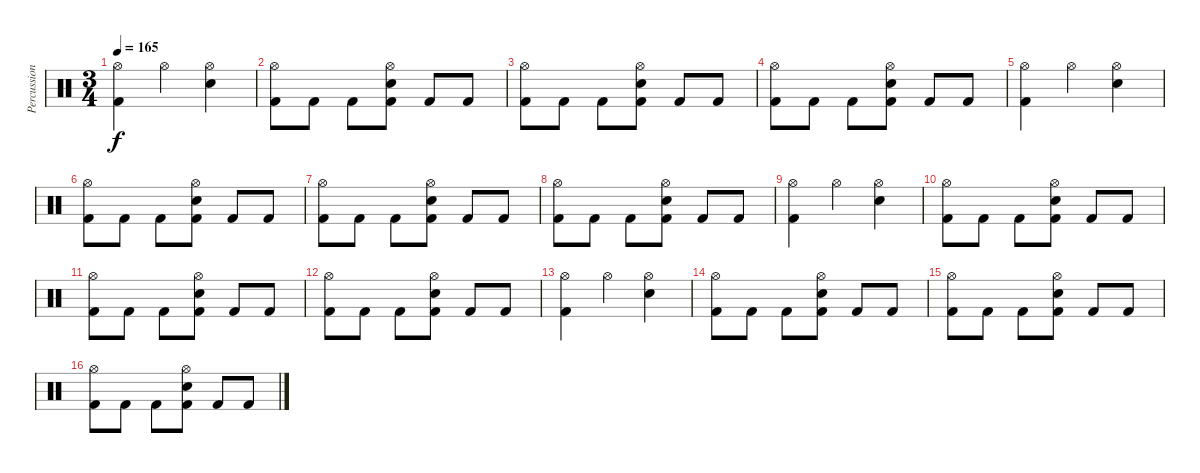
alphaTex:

\track ("Percussion" "Percussion") {instrument percussion}
\staff {score}
\articulation defaults
\ts (3 4)
\tempo 165
\clef neutral
\ks c
("Hi-Hat (open)" "Kick (hit) 2").4{dy f} "Hi-Hat (open)".4 ("Hi-Hat (open)" "Snare (hit) 2").4 |
("Hi-Hat (open)" "Kick (hit) 2").8 "Kick (hit) 2".8 "Kick (hit) 2".8 ("Hi-Hat (open)" "Snare (hit) 2" "Kick (hit) 2").8 "Kick (hit) 2".8 "Kick (hit) 2".8 |
("Hi-Hat (open)" "Kick (hit) 2").8 "Kick (hit) 2".8 "Kick (hit) 2".8 ("Hi-Hat (open)" "Snare (hit) 2" "Kick (hit) 2").8 "Kick (hit) 2".8 "Kick (hit) 2".8 |
("Hi-Hat (open)" "Kick (hit) 2").8 "Kick (hit) 2".8 "Kick (hit) 2".8 ("Hi-Hat (open)" "Snare (hit) 2" "Kick (hit) 2").8 "Kick (hit) 2".8 "Kick (hit) 2".8 |
("Hi-Hat (open)" "Kick (hit) 2").4 "Hi-Hat (open)".4 ("Hi-Hat (open)" "Snare (hit) 2").4 |
("Hi-Hat (open)" "Kick (hit) 2").8 "Kick (hit) 2".8 "Kick (hit) 2".8 ("Hi-Hat (open)" "Snare (hit) 2" "Kick (hit) 2").8 "Kick (hit) 2".8 "Kick (hit) 2".8 |
("Hi-Hat (open)" "Kick (hit) 2").8 "Kick (hit) 2".8 "Kick (hit) 2".8 ("Hi-Hat (open)" "Snare (hit) 2" "Kick (hit) 2").8 "Kick (hit) 2".8 "Kick (hit) 2".8 |
("Hi-Hat (open)" "Kick (hit) 2").8 "Kick (hit) 2".8 "Kick (hit) 2".8 ("Hi-Hat (open)" "Snare (hit) 2" "Kick (hit) 2").8 "Kick (hit) 2".8 "Kick (hit) 2".8 |
("Hi-Hat (open)" "Kick (hit) 2").4 "Hi-Hat (open)".4 ("Hi-Hat (open)" "Snare (hit) 2").4 |
("Hi-Hat (open)" "Kick (hit) 2").8 "Kick (hit) 2".8 "Kick (hit) 2".8 ("Hi-Hat (open)" "Snare (hit) 2" "Kick (hit) 2").8 "Kick (hit) 2".8 "Kick (hit) 2".8 |
("Hi-Hat (open)" "Kick (hit) 2").8 "Kick (hit) 2".8 "Kick (hit) 2".8 ("Hi-Hat (open)" "Snare (hit) 2" "Kick (hit) 2").8 "Kick (hit) 2".8 "Kick (hit) 2".8 |
("Hi-Hat (open)" "Kick (hit) 2").8 "Kick (hit) 2".8 "Kick (hit) 2".8 ("Hi-Hat (open)" "Snare (hit) 2" "Kick (hit) 2").8 "Kick (hit) 2".8 "Kick (hit) 2".8 |
("Hi-Hat (open)" "Kick (hit) 2").4 "Hi-Hat (open)".4 ("Hi-Hat (open)" "Snare (hit) 2").4 |
("Hi-Hat (open)" "Kick (hit) 2").8 "Kick (hit) 2".8 "Kick (hit) 2".8 ("Hi-Hat (open)" "Snare (hit) 2" "Kick (hit) 2").8 "Kick (hit) 2".8 "Kick (hit) 2".8 |
("Hi-Hat (open)" "Kick (hit) 2").8 "Kick (hit) 2".8 "Kick (hit) 2".8 ("Hi-Hat (open)" "Snare (hit) 2" "Kick (hit) 2").8 "Kick (hit) 2".8 "Kick (hit) 2".8 |
("Hi-Hat (open)" "Kick (hit) 2").8 "Kick (hit) 2".8 "Kick (hit) 2".8 ("Hi-Hat (open)" "Snare (hit) 2" "Kick (hit) 2").8 "Kick (hit) 2".8 "Kick (hit) 2".8
